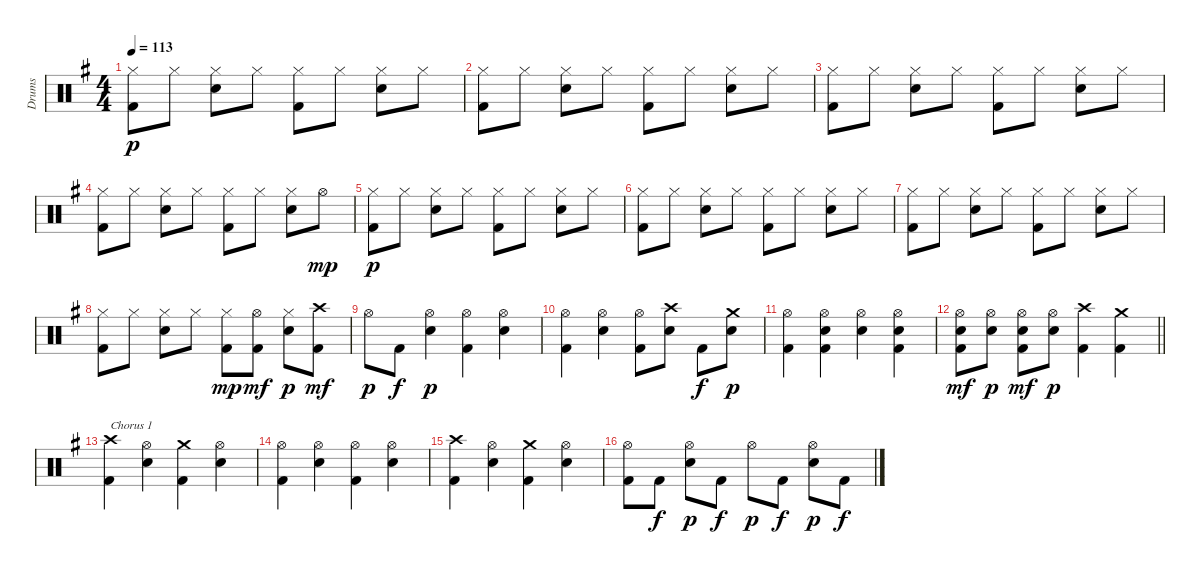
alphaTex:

\track ("Drums" "Drums") {instrument percussion}
\staff {score}
\articulation defaults
\ts (4 4)
\tempo 113
\clef neutral
\ks g
("Hi-Hat (closed)" "Kick (hit) 2").8{dy p} "Hi-Hat (closed)".8 ("Hi-Hat (closed)" "Electric Snare (hit)").8 "Hi-Hat (closed)".8 ("Hi-Hat (closed)" "Kick (hit) 2").8 "Hi-Hat (closed)".8 ("Hi-Hat (closed)" "Electric Snare (hit)").8 "Hi-Hat (closed)".8 |
("Hi-Hat (closed)" "Kick (hit) 2").8 "Hi-Hat (closed)".8 ("Hi-Hat (closed)" "Electric Snare (hit)").8 "Hi-Hat (closed)".8 ("Hi-Hat (closed)" "Kick (hit) 2").8 "Hi-Hat (closed)".8 ("Hi-Hat (closed)" "Electric Snare (hit)").8 "Hi-Hat (closed)".8 |
("Hi-Hat (closed)" "Kick (hit) 2").8 "Hi-Hat (closed)".8 ("Hi-Hat (closed)" "Electric Snare (hit)").8 "Hi-Hat (closed)".8 ("Hi-Hat (closed)" "Kick (hit) 2").8 "Hi-Hat (closed)".8 ("Hi-Hat (closed)" "Electric Snare (hit)").8 "Hi-Hat (closed)".8 |
("Hi-Hat (closed)" "Kick (hit) 2").8 "Hi-Hat (closed)".8 ("Hi-Hat (closed)" "Electric Snare (hit)").8 "Hi-Hat (closed)".8 ("Hi-Hat (closed)" "Kick (hit) 2").8 "Hi-Hat (closed)".8 ("Hi-Hat (closed)" "Electric Snare (hit)").8 "Hi-Hat (open)".8{dy mp} |
("Hi-Hat (closed)" "Kick (hit) 2").8{dy p} "Hi-Hat (closed)".8 ("Hi-Hat (closed)" "Electric Snare (hit)").8 "Hi-Hat (closed)".8 ("Hi-Hat (closed)" "Kick (hit) 2").8 "Hi-Hat (closed)".8 ("Hi-Hat (closed)" "Electric Snare (hit)").8 "Hi-Hat (closed)".8 |
("Hi-Hat (closed)" "Kick (hit) 2").8 "Hi-Hat (closed)".8 ("Hi-Hat (closed)" "Electric Snare (hit)").8 "Hi-Hat (closed)".8 ("Hi-Hat (closed)" "Kick (hit) 2").8 "Hi-Hat (closed)".8 ("Hi-Hat (closed)" "Electric Snare (hit)").8 "Hi-Hat (closed)".8 |
("Hi-Hat (closed)" "Kick (hit) 2").8 "Hi-Hat (closed)".8 ("Hi-Hat (closed)" "Electric Snare (hit)").8 "Hi-Hat (closed)".8 ("Hi-Hat (closed)" "Kick (hit) 2").8 "Hi-Hat (closed)".8 ("Hi-Hat (closed)" "Electric Snare (hit)").8 "Hi-Hat (closed)".8 |
("Hi-Hat (closed)" "Kick (hit) 2").8 "Hi-Hat (closed)".8 ("Hi-Hat (closed)" "Electric Snare (hit)").8 "Hi-Hat (closed)".8 ("Hi-Hat (closed)" "Kick (hit) 2").8{dy mp} ("Hi-Hat (open)" "Kick (hit) 2").8{dy mf} ("Hi-Hat (closed)" "Electric Snare (hit)").8{dy p} ("Crash high (hit)" "Kick (hit) 2").8{dy mf} |
"Hi-Hat (open)".8{dy p} "Kick (hit) 2".8{dy f} ("Hi-Hat (open)" "Electric Snare (hit)").4{dy p} ("Hi-Hat (open)" "Kick (hit) 2").4 ("Hi-Hat (open)" "Electric Snare (hit)").4 |
("Hi-Hat (open)" "Kick (hit) 2").4 ("Hi-Hat (open)" "Electric Snare (hit)").4 ("Hi-Hat (open)" "Kick (hit) 2").8 ("Electric Snare (hit)" "Crash high (hit)").8 "Kick (hit) 2".8{dy f} ("Electric Snare (hit)" "Crash medium (hit)").8{dy p} |
("Hi-Hat (open)" "Kick (hit) 2").4 ("Hi-Hat (open)" "Electric Snare (hit)" "Kick (hit) 2").4 ("Hi-Hat (open)" "Electric Snare (hit)").4 ("Hi-Hat (open)" "Electric Snare (hit)" "Kick (hit) 2").4 |
\barLineRight lightlight
("Electric Snare (hit)" "Hi-Hat (open)" "Kick (hit) 2").8{dy mf} ("Electric Snare (hit)" "Hi-Hat (open)").8{dy p} ("Electric Snare (hit)" "Hi-Hat (open)" "Kick (hit) 2").8{dy mf} ("Electric Snare (hit)" "Hi-Hat (open)").8{dy p} ("Kick (hit) 2" "Crash high (hit)").4 ("Kick (hit) 2" "Crash medium (hit)").4 |
("Crash high (hit)" "Kick (hit) 2").4{txt "Chorus 1"} ("Hi-Hat (open)" "Electric Snare (hit)").4 ("Crash medium (hit)" "Kick (hit) 2").4 ("Hi-Hat (open)" "Electric Snare (hit)").4 |
("Hi-Hat (open)" "Kick (hit) 2").4 ("Hi-Hat (open)" "Electric Snare (hit)").4 ("Hi-Hat (open)" "Kick (hit) 2").4 ("Hi-Hat (open)" "Electric Snare (hit)").4 |
("Crash high (hit)" "Kick (hit) 2").4 ("Hi-Hat (open)" "Electric Snare (hit)").4 ("Crash medium (hit)" "Kick (hit) 2").4 ("Hi-Hat (open)" "Electric Snare (hit)").4 |
("Kick (hit) 2" "Hi-Hat (open)").8 "Kick (hit) 2".8{dy f} ("Electric Snare (hit)" "Hi-Hat (open)").8{dy p} "Kick (hit) 2".8{dy f} "Hi-Hat (open)".8{dy p} "Kick (hit) 2".8{dy f} ("Electric Snare (hit)" "Hi-Hat (open)").8{dy p} "Kick (hit) 2".8{dy f}
